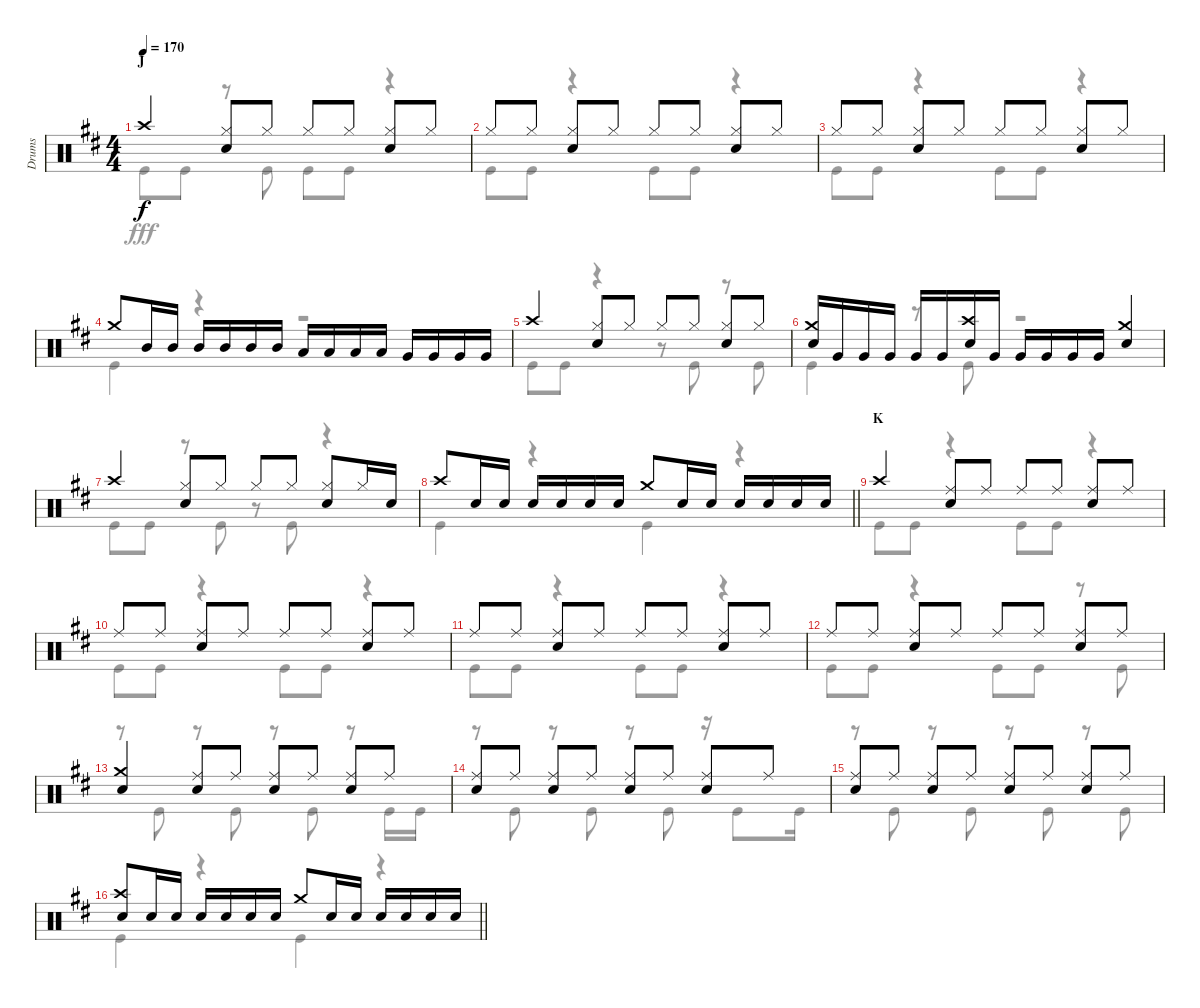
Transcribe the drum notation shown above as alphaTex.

\track ("Drums" "Drums") {instrument percussion}
\staff {score}
\articulation defaults
\voice
\ts (4 4)
\section ("" "J")
\tempo 170
\clef neutral
\ks d "Crash high (hit)".4{dy f}
("Hi-Hat (closed)" "Snare (hit) 2").8 "Hi-Hat (closed)".8 "Hi-Hat (closed)".8 "Hi-Hat (closed)".8 ("Hi-Hat (closed)" "Snare (hit) 2").8 "Hi-Hat (closed)".8 |
"Hi-Hat (closed)".8 "Hi-Hat (closed)".8 ("Hi-Hat (closed)" "Snare (hit) 2").8 "Hi-Hat (closed)".8 "Hi-Hat (closed)".8 "Hi-Hat (closed)".8 ("Hi-Hat (closed)" "Snare (hit) 2").8 "Hi-Hat (closed)".8 |
"Hi-Hat (closed)".8 "Hi-Hat (closed)".8 ("Hi-Hat (closed)" "Snare (hit) 2").8 "Hi-Hat (closed)".8 "Hi-Hat (closed)".8 "Hi-Hat (closed)".8 ("Hi-Hat (closed)" "Snare (hit) 2").8 "Hi-Hat (closed)".8 |
"Crash medium (hit)".8 "Mid Tom (hit)".16 "Mid Tom (hit)".16 "Mid Tom (hit)".16 "Mid Tom (hit)".16 "Mid Tom (hit)".16 "Mid Tom (hit)".16 "Low Tom (hit)".16 "Low Tom (hit)".16 "Low Tom (hit)".16 "Low Tom (hit)".16 "Very Low Tom (hit)".16 "Very Low Tom (hit)".16 "Very Low Tom (hit)".16 "Very Low Tom (hit)".16 |
"Crash high (hit)".4 ("Hi-Hat (closed)" "Snare (hit) 2").8 "Hi-Hat (closed)".8 "Hi-Hat (closed)".8 "Hi-Hat (closed)".8 ("Hi-Hat (closed)" "Snare (hit) 2").8 "Hi-Hat (closed)".8 |
("Crash medium (hit)" "Snare (hit) 2").16 "Very Low Tom (hit)".16 "Very Low Tom (hit)".16 "Very Low Tom (hit)".16 "Very Low Tom (hit)".16 "Very Low Tom (hit)".16 ("Crash high (hit)" "Snare (hit) 2").16 "Very Low Tom (hit)".16 "Very Low Tom (hit)".16 "Very Low Tom (hit)".16 "Very Low Tom (hit)".16 "Very Low Tom (hit)".16 ("Crash medium (hit)" "Snare (hit) 2").4 |
"Crash high (hit)".4 ("Hi-Hat (closed)" "Snare (hit) 2").8 "Hi-Hat (closed)".8 "Hi-Hat (closed)".8 "Hi-Hat (closed)".8 ("Hi-Hat (closed)" "Snare (hit) 2").8 "Hi-Hat (closed)".16 "Snare (hit) 2".16 |
\barLineRight lightlight "Crash high (hit)".8 "Snare (hit) 2".16 "Snare (hit) 2".16 "Snare (hit) 2".16 "Snare (hit) 2".16 "Snare (hit) 2".16 "Snare (hit) 2".16 "Crash medium (hit)".8 "Snare (hit) 2".16 "Snare (hit) 2".16 "Snare (hit) 2".16 "Snare (hit) 2".16 "Snare (hit) 2".16 "Snare (hit) 2".16
|
\section ("" "K")
"Crash high (hit)".4 ("Ride (middle)" "Snare (hit) 2").8 "Ride (middle)".8 "Ride (middle)".8 "Ride (middle)".8 ("Ride (middle)" "Snare (hit) 2").8 "Ride (middle)".8 |
"Ride (middle)".8 "Ride (middle)".8 ("Ride (middle)" "Snare (hit) 2").8 "Ride (middle)".8 "Ride (middle)".8 "Ride (middle)".8 ("Ride (middle)" "Snare (hit) 2").8 "Ride (middle)".8 |
"Ride (middle)".8 "Ride (middle)".8 ("Ride (middle)" "Snare (hit) 2").8 "Ride (middle)".8 "Ride (middle)".8 "Ride (middle)".8 ("Ride (middle)" "Snare (hit) 2").8 "Ride (middle)".8 |
"Ride (middle)".8 "Ride (middle)".8 ("Ride (middle)" "Snare (hit) 2").8 "Ride (middle)".8 "Ride (middle)".8 "Ride (middle)".8 ("Ride (middle)" "Snare (hit) 2").8 "Ride (middle)".8 |
("Crash medium (hit)" "Snare (hit) 2").4 ("Ride (middle)" "Snare (hit) 2").8 "Ride (middle)".8 ("Ride (middle)" "Snare (hit) 2").8 "Ride (middle)".8 ("Ride (middle)" "Snare (hit) 2").8 "Ride (middle)".8 |
("Ride (middle)" "Snare (hit) 2").8 "Ride (middle)".8 ("Ride (middle)" "Snare (hit) 2").8 "Ride (middle)".8 ("Ride (middle)" "Snare (hit) 2").8 "Ride (middle)".8 ("Ride (middle)" "Snare (hit) 2").8 "Ride (middle)".8 |
("Ride (middle)" "Snare (hit) 2").8 "Ride (middle)".8 ("Ride (middle)" "Snare (hit) 2").8 "Ride (middle)".8 ("Ride (middle)" "Snare (hit) 2").8 "Ride (middle)".8 ("Ride (middle)" "Snare (hit) 2").8 "Ride (middle)".8 |
\barLineRight lightlight
("Crash high (hit)" "Snare (hit) 2").8 "Snare (hit) 2".16 "Snare (hit) 2".16 "Snare (hit) 2".16 "Snare (hit) 2".16 "Snare (hit) 2".16 "Snare (hit) 2".16 "Crash medium (hit)".8 "Snare (hit) 2".16 "Snare (hit) 2".16 "Snare (hit) 2".16 "Snare (hit) 2".16 "Snare (hit) 2".16 "Snare (hit) 2".16
\voice
\clef neutral
\ottava regular
\simile none
\ks d "Kick (hit)".8{dy fff} "Kick (hit)".8
r.8 "Kick (hit)".8 "Kick (hit)".8 "Kick (hit)".8 r.4 |
"Kick (hit)".8 "Kick (hit)".8 r.4 "Kick (hit)".8 "Kick (hit)".8 r.4 |
"Kick (hit)".8 "Kick (hit)".8 r.4 "Kick (hit)".8 "Kick (hit)".8 r.4 |
"Kick (hit)".4 r.4 r.2 |
"Kick (hit)".8 "Kick (hit)".8 r.4 r.8 "Kick (hit)".8 r.8 "Kick (hit)".8 |
"Kick (hit)".4 r.8 "Kick (hit)".8 r.2 |
"Kick (hit)".8 "Kick (hit)".8 r.8 "Kick (hit)".8 r.8 "Kick (hit)".8 r.4 |
\barLineRight lightlight "Kick (hit)".4
r.4 "Kick (hit)".4 r.4 |
"Kick (hit)".8 "Kick (hit)".8 r.4 "Kick (hit)".8 "Kick (hit)".8 r.4 |
"Kick (hit)".8 "Kick (hit)".8 r.4 "Kick (hit)".8 "Kick (hit)".8 r.4 |
"Kick (hit)".8 "Kick (hit)".8 r.4 "Kick (hit)".8 "Kick (hit)".8 r.4 |
"Kick (hit)".8 "Kick (hit)".8 r.4 "Kick (hit)".8 "Kick (hit)".8 r.8 "Kick (hit)".8 |
r.8 "Kick (hit)".8 r.8 "Kick (hit)".8 r.8 "Kick (hit)".8 r.8 "Kick (hit)".16 "Kick (hit)".16 |
r.8 "Kick (hit)".8 r.8 "Kick (hit)".8 r.8 "Kick (hit)".8 r.16 "Kick (hit)".8 "Kick (hit)".16 |
r.8 "Kick (hit)".8 r.8 "Kick (hit)".8 r.8 "Kick (hit)".8 r.8 "Kick (hit)".8 |
\barLineRight lightlight "Kick (hit)".4
r.4 "Kick (hit)".4 r.4
